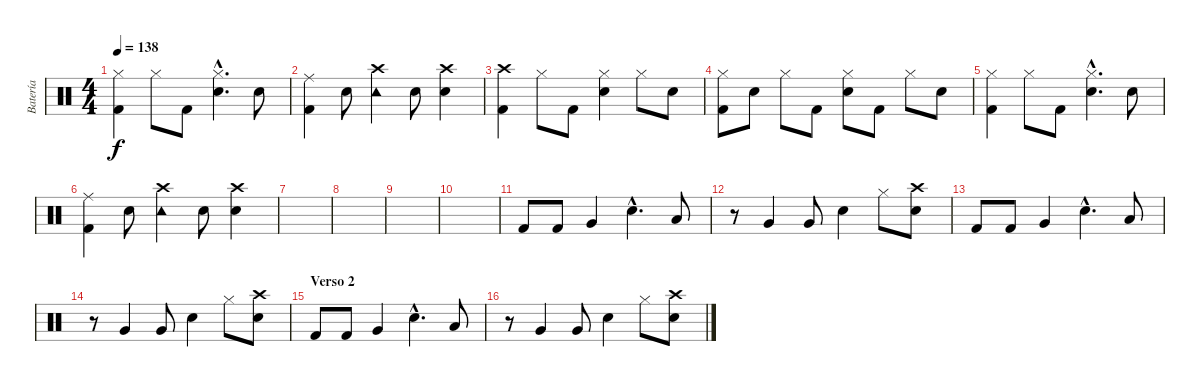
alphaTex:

\track ("Batería" "Batería") {instrument percussion}
\staff {score}
\articulation defaults
\ts (4 4)
\tempo 138
\clef neutral
\ks c
("Kick (hit) 2" "Hi-Hat (closed)").4{dy f} "Hi-Hat (closed)".8 "Kick (hit) 2".8 ("Electric Snare (hit)"{hac} "Hi-Hat (closed)"{hac}).4{d} "Electric Snare (hit)".8 |
("Kick (hit) 2" "Ride (middle)").4 "Electric Snare (hit)".8 ("Crash high (hit)" "Tambourine (hit)").4 "Electric Snare (hit)".8 ("Electric Snare (hit)" "Crash high (hit)").4 |
("Kick (hit) 2" "Crash high (hit)").4 "Hi-Hat (closed)".8 "Kick (hit) 2".8 ("Electric Snare (hit)" "Hi-Hat (closed)").4 "Hi-Hat (closed)".8 "Electric Snare (hit)".8 |
("Kick (hit) 2" "Hi-Hat (closed)").8 "Electric Snare (hit)".8 "Hi-Hat (closed)".8 "Kick (hit) 2".8 ("Electric Snare (hit)" "Hi-Hat (closed)").8 "Kick (hit) 2".8 "Hi-Hat (closed)".8 "Electric Snare (hit)".8 |
("Kick (hit) 2" "Hi-Hat (closed)").4 "Hi-Hat (closed)".8 "Kick (hit) 2".8 ("Electric Snare (hit)"{hac} "Hi-Hat (closed)"{hac}).4{d} "Electric Snare (hit)".8 |
("Kick (hit) 2" "Ride (middle)").4 "Electric Snare (hit)".8 ("Crash high (hit)" "Tambourine (hit)").4 "Electric Snare (hit)".8 ("Electric Snare (hit)" "Crash high (hit)").4 |
|
|
|
|
"Kick (hit) 2".8 "Kick (hit) 2".8 "Very Low Tom (hit)".4 "Electric Snare (hit)"{hac}.4{d} "Low Tom (hit)".8 |
r.8 "Very Low Tom (hit)".4 "Very Low Tom (hit)".8 "Electric Snare (hit)".4 "Hi-Hat (closed)".8 ("Electric Snare (hit)" "Crash high (hit)").8 |
"Kick (hit) 2".8 "Kick (hit) 2".8 "Very Low Tom (hit)".4 "Electric Snare (hit)"{hac}.4{d} "Low Tom (hit)".8 |
r.8 "Very Low Tom (hit)".4 "Very Low Tom (hit)".8 "Electric Snare (hit)".4 "Hi-Hat (closed)".8 ("Electric Snare (hit)" "Crash high (hit)").8 |
\section ("" "Verso 2")
"Kick (hit) 2".8 "Kick (hit) 2".8 "Very Low Tom (hit)".4 "Electric Snare (hit)"{hac}.4{d} "Low Tom (hit)".8 |
r.8 "Very Low Tom (hit)".4 "Very Low Tom (hit)".8 "Electric Snare (hit)".4 "Hi-Hat (closed)".8 ("Electric Snare (hit)" "Crash high (hit)").8
